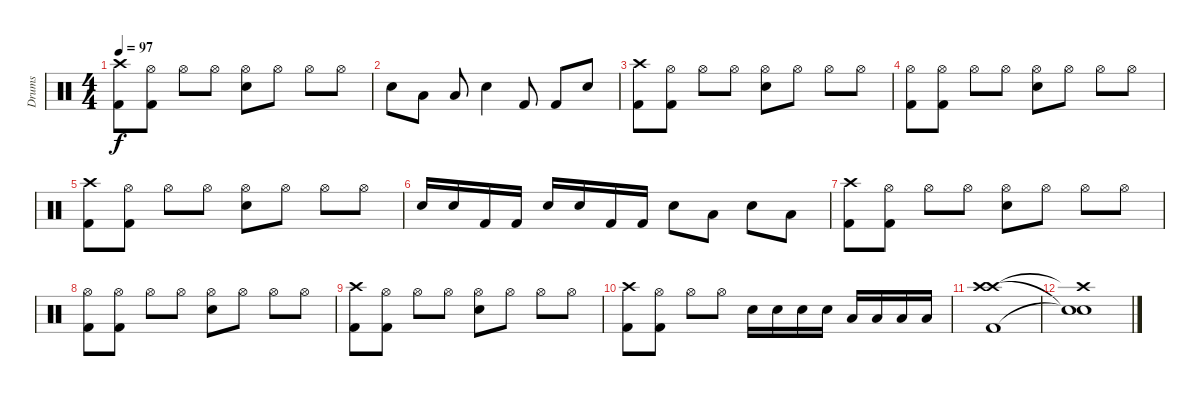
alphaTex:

\track ("Drums" "Drums") {solo instrument percussion}
\staff {score}
\articulation defaults
\ts (4 4)
\tempo 97
\clef neutral
\ks c
("Crash high (hit)" "Kick (hit) 2").8{dy f} ("Hi-Hat (open)" "Kick (hit) 2").8 "Hi-Hat (open)".8 "Hi-Hat (open)".8 ("Hi-Hat (open)" "Electric Snare (hit)").8 "Hi-Hat (open)".8 "Hi-Hat (open)".8 "Hi-Hat (open)".8 |
"Electric Snare (hit)".8 "Low Floor Tom (hit)".8 "Low Floor Tom (hit)".8 "Electric Snare (hit)".4 "Kick (hit) 2".8 "Kick (hit) 2".8 "Electric Snare (hit)".8 |
("Crash high (hit)" "Kick (hit) 2").8 ("Hi-Hat (open)" "Kick (hit) 2").8 "Hi-Hat (open)".8 "Hi-Hat (open)".8 ("Hi-Hat (open)" "Electric Snare (hit)").8 "Hi-Hat (open)".8 "Hi-Hat (open)".8 "Hi-Hat (open)".8 |
("Hi-Hat (open)" "Kick (hit) 2").8 ("Hi-Hat (open)" "Kick (hit) 2").8 "Hi-Hat (open)".8 "Hi-Hat (open)".8 ("Hi-Hat (open)" "Electric Snare (hit)").8 "Hi-Hat (open)".8 "Hi-Hat (open)".8 "Hi-Hat (open)".8 |
("Crash high (hit)" "Kick (hit) 2").8 ("Hi-Hat (open)" "Kick (hit) 2").8 "Hi-Hat (open)".8 "Hi-Hat (open)".8 ("Hi-Hat (open)" "Electric Snare (hit)").8 "Hi-Hat (open)".8 "Hi-Hat (open)".8 "Hi-Hat (open)".8 |
"Electric Snare (hit)".16 "Electric Snare (hit)".16 "Kick (hit) 2".16 "Kick (hit) 2".16 "Electric Snare (hit)".16 "Electric Snare (hit)".16 "Kick (hit) 2".16 "Kick (hit) 2".16 "Electric Snare (hit)".8 "Low Floor Tom (hit)".8 "Electric Snare (hit)".8 "Low Floor Tom (hit)".8 |
("Crash high (hit)" "Kick (hit) 2").8 ("Hi-Hat (open)" "Kick (hit) 2").8 "Hi-Hat (open)".8 "Hi-Hat (open)".8 ("Hi-Hat (open)" "Electric Snare (hit)").8 "Hi-Hat (open)".8 "Hi-Hat (open)".8 "Hi-Hat (open)".8 |
("Hi-Hat (open)" "Kick (hit) 2").8 ("Hi-Hat (open)" "Kick (hit) 2").8 "Hi-Hat (open)".8 "Hi-Hat (open)".8 ("Hi-Hat (open)" "Electric Snare (hit)").8 "Hi-Hat (open)".8 "Hi-Hat (open)".8 "Hi-Hat (open)".8 |
("Crash high (hit)" "Kick (hit) 2").8 ("Hi-Hat (open)" "Kick (hit) 2").8 "Hi-Hat (open)".8 "Hi-Hat (open)".8 ("Hi-Hat (open)" "Electric Snare (hit)").8 "Hi-Hat (open)".8 "Hi-Hat (open)".8 "Hi-Hat (open)".8 |
("Crash high (hit)" "Kick (hit) 2").8 ("Hi-Hat (open)" "Kick (hit) 2").8 "Hi-Hat (open)".8 "Hi-Hat (open)".8 "Electric Snare (hit)".16 "Electric Snare (hit)".16 "Electric Snare (hit)".16 "Electric Snare (hit)".16 "Low Floor Tom (hit)".16 "Low Floor Tom (hit)".16 "Low Floor Tom (hit)".16 "Low Floor Tom (hit)".16 |
("Crash high (hit)" "Crash high (hit)" "Kick (hit) 2").1 |
("Crash high (hit)"{t} "Snare (hit)"{t} "Snare (hit)"{t}).1
